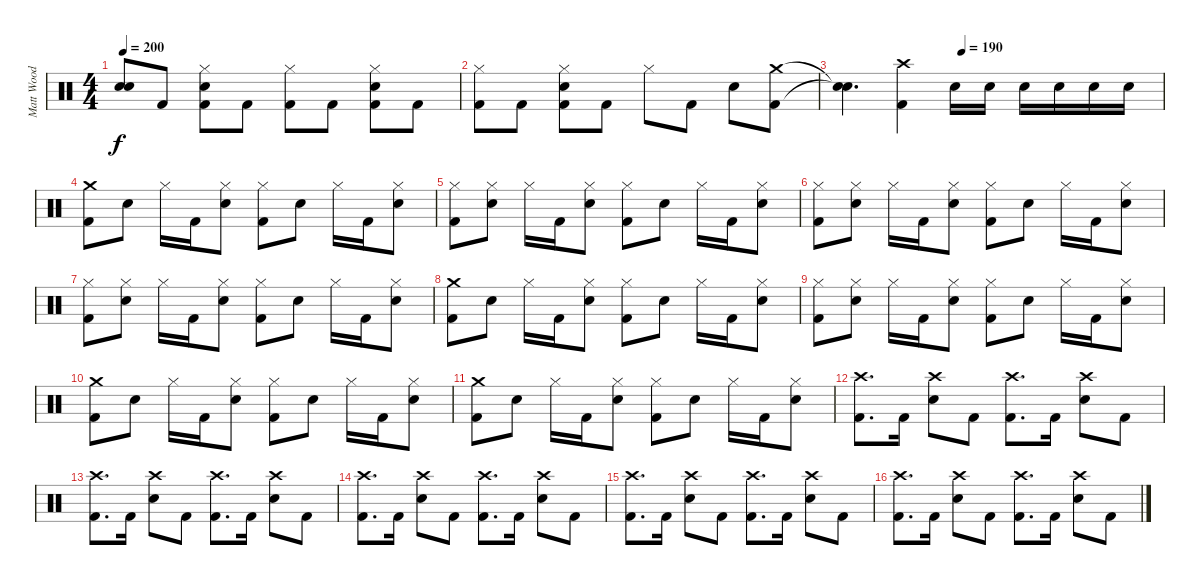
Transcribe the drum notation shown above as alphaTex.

\track ("Matt Wood" "Matt Wood") {instrument percussion}
\staff {score}
\articulation defaults
\ts (4 4)
\tempo 200
\clef neutral
\ks c
("Snare (hit)"{t} "Snare (hit)"{t}).8{dy f} "Kick (hit) 2".8 ("Hi-Hat (closed)" "Snare (hit) 2" "Kick (hit) 2").8 "Kick (hit) 2".8 ("Hi-Hat (closed)" "Kick (hit) 2").8 "Kick (hit) 2".8 ("Hi-Hat (closed)" "Snare (hit) 2" "Kick (hit) 2").8 "Kick (hit) 2".8 |
("Hi-Hat (closed)" "Kick (hit) 2").8 "Kick (hit) 2".8 ("Hi-Hat (closed)" "Snare (hit) 2" "Kick (hit) 2").8 "Kick (hit) 2".8 "Hi-Hat (closed)".8 "Kick (hit) 2".8 "Snare (hit) 2".8 ("Crash medium (hit)" "Kick (hit) 2").8 |
\tempo (190 0.375)
("Snare (hit)"{t} "Snare (hit)"{t}).4{d} ("Crash high (hit)" "Kick (hit) 2").4 "Snare (hit) 2".16 "Snare (hit) 2".16 "Snare (hit) 2".16 "Snare (hit) 2".16 "Snare (hit) 2".16 "Snare (hit) 2".16 |
("Crash medium (hit)" "Kick (hit) 2").8 "Snare (hit) 2".8 "Hi-Hat (closed)".16 "Kick (hit) 2".16 ("Hi-Hat (closed)" "Snare (hit) 2").8 ("Hi-Hat (closed)" "Kick (hit) 2").8 "Snare (hit) 2".8 "Hi-Hat (closed)".16 "Kick (hit) 2".16 ("Hi-Hat (closed)" "Snare (hit) 2").8 |
("Hi-Hat (closed)" "Kick (hit) 2").8 ("Hi-Hat (closed)" "Snare (hit) 2").8 "Hi-Hat (closed)".16 "Kick (hit) 2".16 ("Hi-Hat (closed)" "Snare (hit) 2").8 ("Hi-Hat (closed)" "Kick (hit) 2").8 "Snare (hit) 2".8 "Hi-Hat (closed)".16 "Kick (hit) 2".16 ("Hi-Hat (closed)" "Snare (hit) 2").8 |
("Hi-Hat (closed)" "Kick (hit) 2").8 ("Hi-Hat (closed)" "Snare (hit) 2").8 "Hi-Hat (closed)".16 "Kick (hit) 2".16 ("Hi-Hat (closed)" "Snare (hit) 2").8 ("Hi-Hat (closed)" "Kick (hit) 2").8 "Snare (hit) 2".8 "Hi-Hat (closed)".16 "Kick (hit) 2".16 ("Hi-Hat (closed)" "Snare (hit) 2").8 |
("Hi-Hat (closed)" "Kick (hit) 2").8 ("Hi-Hat (closed)" "Snare (hit) 2").8 "Hi-Hat (closed)".16 "Kick (hit) 2".16 ("Hi-Hat (closed)" "Snare (hit) 2").8 ("Hi-Hat (closed)" "Kick (hit) 2").8 "Snare (hit) 2".8 "Hi-Hat (closed)".16 "Kick (hit) 2".16 ("Hi-Hat (closed)" "Snare (hit) 2").8 |
("Crash medium (hit)" "Kick (hit) 2").8 "Snare (hit) 2".8 "Hi-Hat (closed)".16 "Kick (hit) 2".16 ("Hi-Hat (closed)" "Snare (hit) 2").8 ("Hi-Hat (closed)" "Kick (hit) 2").8 "Snare (hit) 2".8 "Hi-Hat (closed)".16 "Kick (hit) 2".16 ("Hi-Hat (closed)" "Snare (hit) 2").8 |
("Hi-Hat (closed)" "Kick (hit) 2").8 ("Hi-Hat (closed)" "Snare (hit) 2").8 "Hi-Hat (closed)".16 "Kick (hit) 2".16 ("Hi-Hat (closed)" "Snare (hit) 2").8 ("Hi-Hat (closed)" "Kick (hit) 2").8 "Snare (hit) 2".8 "Hi-Hat (closed)".16 "Kick (hit) 2".16 ("Hi-Hat (closed)" "Snare (hit) 2").8 |
("Crash medium (hit)" "Kick (hit) 2").8 "Snare (hit) 2".8 "Hi-Hat (closed)".16 "Kick (hit) 2".16 ("Hi-Hat (closed)" "Snare (hit) 2").8 ("Hi-Hat (closed)" "Kick (hit) 2").8 "Snare (hit) 2".8 "Hi-Hat (closed)".16 "Kick (hit) 2".16 ("Hi-Hat (closed)" "Snare (hit) 2").8 |
("Crash medium (hit)" "Kick (hit) 2").8 "Snare (hit) 2".8 "Hi-Hat (closed)".16 "Kick (hit) 2".16 ("Hi-Hat (closed)" "Snare (hit) 2").8 ("Hi-Hat (closed)" "Kick (hit) 2").8 "Snare (hit) 2".8 "Hi-Hat (closed)".16 "Kick (hit) 2".16 ("Hi-Hat (closed)" "Snare (hit) 2").8 |
("Crash high (hit)" "Kick (hit) 2").8{d} "Kick (hit) 2".16 ("Crash high (hit)" "Snare (hit) 2").8 "Kick (hit) 2".8 ("Crash high (hit)" "Kick (hit) 2").8{d} "Kick (hit) 2".16 ("Crash high (hit)" "Snare (hit) 2").8 "Kick (hit) 2".8 |
("Crash high (hit)" "Kick (hit) 2").8{d} "Kick (hit) 2".16 ("Crash high (hit)" "Snare (hit) 2").8 "Kick (hit) 2".8 ("Crash high (hit)" "Kick (hit) 2").8{d} "Kick (hit) 2".16 ("Crash high (hit)" "Snare (hit) 2").8 "Kick (hit) 2".8 |
("Crash high (hit)" "Kick (hit) 2").8{d} "Kick (hit) 2".16 ("Crash high (hit)" "Snare (hit) 2").8 "Kick (hit) 2".8 ("Crash high (hit)" "Kick (hit) 2").8{d} "Kick (hit) 2".16 ("Crash high (hit)" "Snare (hit) 2").8 "Kick (hit) 2".8 |
("Crash high (hit)" "Kick (hit) 2").8{d} "Kick (hit) 2".16 ("Crash high (hit)" "Snare (hit) 2").8 "Kick (hit) 2".8 ("Crash high (hit)" "Kick (hit) 2").8{d} "Kick (hit) 2".16 ("Crash high (hit)" "Snare (hit) 2").8 "Kick (hit) 2".8 |
("Crash high (hit)" "Kick (hit) 2").8{d} "Kick (hit) 2".16 ("Crash high (hit)" "Snare (hit) 2").8 "Kick (hit) 2".8 ("Crash high (hit)" "Kick (hit) 2").8{d} "Kick (hit) 2".16 ("Crash high (hit)" "Snare (hit) 2").8 "Kick (hit) 2".8
